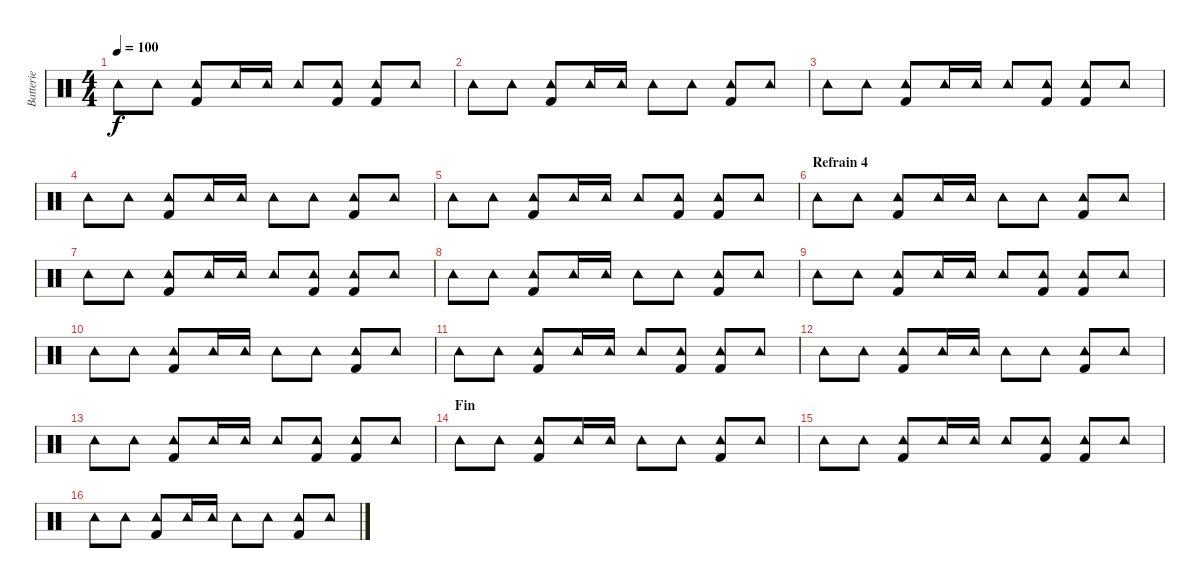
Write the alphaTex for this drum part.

\track ("Batterie" "Batterie") {instrument percussion}
\staff {score}
\articulation defaults
\ts (4 4)
\tempo 100
\clef neutral
\ks c "Tambourine (hit)".8{dy f} "Tambourine (hit)".8
("Tambourine (hit)" "Kick (hit) 2").8 "Tambourine (hit)".16 "Tambourine (hit)".16 "Tambourine (hit)".8 ("Tambourine (hit)" "Kick (hit) 2").8 ("Tambourine (hit)" "Kick (hit) 2").8 "Tambourine (hit)".8 |
"Tambourine (hit)".8 "Tambourine (hit)".8 ("Tambourine (hit)" "Kick (hit) 2").8 "Tambourine (hit)".16 "Tambourine (hit)".16 "Tambourine (hit)".8 "Tambourine (hit)".8 ("Tambourine (hit)" "Kick (hit) 2").8 "Tambourine (hit)".8 |
"Tambourine (hit)".8 "Tambourine (hit)".8 ("Tambourine (hit)" "Kick (hit) 2").8 "Tambourine (hit)".16 "Tambourine (hit)".16 "Tambourine (hit)".8 ("Tambourine (hit)" "Kick (hit) 2").8 ("Tambourine (hit)" "Kick (hit) 2").8 "Tambourine (hit)".8 |
"Tambourine (hit)".8 "Tambourine (hit)".8 ("Tambourine (hit)" "Kick (hit) 2").8 "Tambourine (hit)".16 "Tambourine (hit)".16 "Tambourine (hit)".8 "Tambourine (hit)".8 ("Tambourine (hit)" "Kick (hit) 2").8 "Tambourine (hit)".8 |
"Tambourine (hit)".8 "Tambourine (hit)".8 ("Tambourine (hit)" "Kick (hit) 2").8 "Tambourine (hit)".16 "Tambourine (hit)".16 "Tambourine (hit)".8 ("Tambourine (hit)" "Kick (hit) 2").8 ("Tambourine (hit)" "Kick (hit) 2").8 "Tambourine (hit)".8 |
\section ("" "Refrain 4")
"Tambourine (hit)".8 "Tambourine (hit)".8 ("Tambourine (hit)" "Kick (hit) 2").8 "Tambourine (hit)".16 "Tambourine (hit)".16 "Tambourine (hit)".8 "Tambourine (hit)".8 ("Tambourine (hit)" "Kick (hit) 2").8 "Tambourine (hit)".8 |
"Tambourine (hit)".8 "Tambourine (hit)".8 ("Tambourine (hit)" "Kick (hit) 2").8 "Tambourine (hit)".16 "Tambourine (hit)".16 "Tambourine (hit)".8 ("Tambourine (hit)" "Kick (hit) 2").8 ("Tambourine (hit)" "Kick (hit) 2").8 "Tambourine (hit)".8 |
"Tambourine (hit)".8 "Tambourine (hit)".8 ("Tambourine (hit)" "Kick (hit) 2").8 "Tambourine (hit)".16 "Tambourine (hit)".16 "Tambourine (hit)".8 "Tambourine (hit)".8 ("Tambourine (hit)" "Kick (hit) 2").8 "Tambourine (hit)".8 |
"Tambourine (hit)".8 "Tambourine (hit)".8 ("Tambourine (hit)" "Kick (hit) 2").8 "Tambourine (hit)".16 "Tambourine (hit)".16 "Tambourine (hit)".8 ("Tambourine (hit)" "Kick (hit) 2").8 ("Tambourine (hit)" "Kick (hit) 2").8 "Tambourine (hit)".8 |
"Tambourine (hit)".8 "Tambourine (hit)".8 ("Tambourine (hit)" "Kick (hit) 2").8 "Tambourine (hit)".16 "Tambourine (hit)".16 "Tambourine (hit)".8 "Tambourine (hit)".8 ("Tambourine (hit)" "Kick (hit) 2").8 "Tambourine (hit)".8 |
"Tambourine (hit)".8 "Tambourine (hit)".8 ("Tambourine (hit)" "Kick (hit) 2").8 "Tambourine (hit)".16 "Tambourine (hit)".16 "Tambourine (hit)".8 ("Tambourine (hit)" "Kick (hit) 2").8 ("Tambourine (hit)" "Kick (hit) 2").8 "Tambourine (hit)".8 |
"Tambourine (hit)".8 "Tambourine (hit)".8 ("Tambourine (hit)" "Kick (hit) 2").8 "Tambourine (hit)".16 "Tambourine (hit)".16 "Tambourine (hit)".8 "Tambourine (hit)".8 ("Tambourine (hit)" "Kick (hit) 2").8 "Tambourine (hit)".8 |
"Tambourine (hit)".8 "Tambourine (hit)".8 ("Tambourine (hit)" "Kick (hit) 2").8 "Tambourine (hit)".16 "Tambourine (hit)".16 "Tambourine (hit)".8 ("Tambourine (hit)" "Kick (hit) 2").8 ("Tambourine (hit)" "Kick (hit) 2").8 "Tambourine (hit)".8 |
\section ("" "Fin")
"Tambourine (hit)".8 "Tambourine (hit)".8 ("Tambourine (hit)" "Kick (hit) 2").8 "Tambourine (hit)".16 "Tambourine (hit)".16 "Tambourine (hit)".8 "Tambourine (hit)".8 ("Tambourine (hit)" "Kick (hit) 2").8 "Tambourine (hit)".8 |
"Tambourine (hit)".8 "Tambourine (hit)".8 ("Tambourine (hit)" "Kick (hit) 2").8 "Tambourine (hit)".16 "Tambourine (hit)".16 "Tambourine (hit)".8 ("Tambourine (hit)" "Kick (hit) 2").8 ("Tambourine (hit)" "Kick (hit) 2").8 "Tambourine (hit)".8 |
"Tambourine (hit)".8 "Tambourine (hit)".8 ("Tambourine (hit)" "Kick (hit) 2").8 "Tambourine (hit)".16 "Tambourine (hit)".16 "Tambourine (hit)".8 "Tambourine (hit)".8 ("Tambourine (hit)" "Kick (hit) 2").8 "Tambourine (hit)".8
